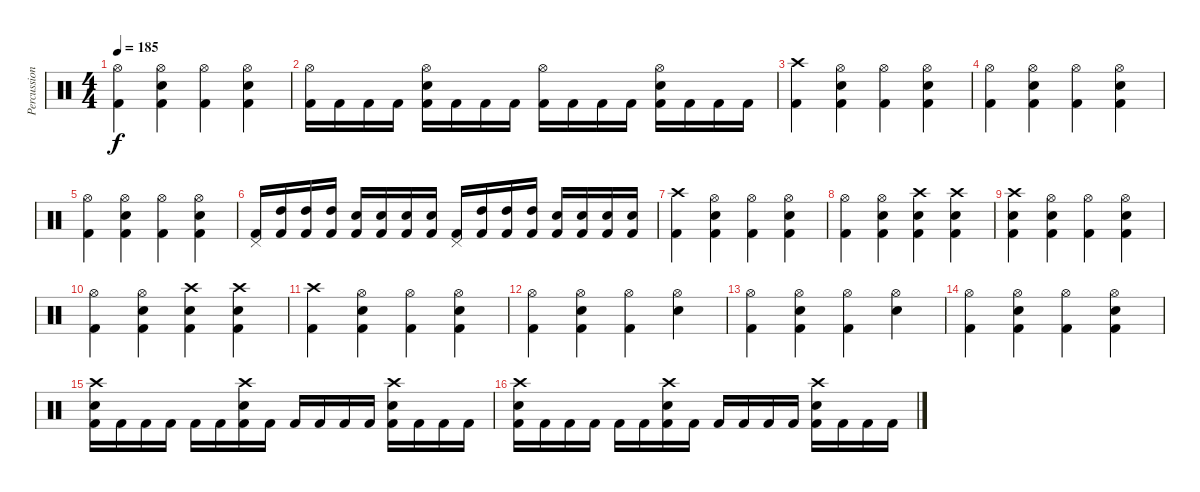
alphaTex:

\track ("Percussion" "Percussion") {instrument percussion}
\staff {score}
\articulation defaults
\ts (4 4)
\tempo 185
\clef neutral
\ks c
("Hi-Hat (open)" "Kick (hit) 2").4{dy f} ("Hi-Hat (open)" "Snare (hit) 2" "Kick (hit) 2").4 ("Hi-Hat (open)" "Kick (hit) 2").4 ("Hi-Hat (open)" "Snare (hit) 2" "Kick (hit) 2").4 |
("Hi-Hat (open)" "Kick (hit) 2").16 "Kick (hit) 2".16 "Kick (hit) 2".16 "Kick (hit) 2".16 ("Hi-Hat (open)" "Snare (hit) 2" "Kick (hit) 2").16 "Kick (hit) 2".16 "Kick (hit) 2".16 "Kick (hit) 2".16 ("Hi-Hat (open)" "Kick (hit) 2").16 "Kick (hit) 2".16 "Kick (hit) 2".16 "Kick (hit) 2".16 ("Hi-Hat (open)" "Snare (hit) 2" "Kick (hit) 2").16 "Kick (hit) 2".16 "Kick (hit) 2".16 "Kick (hit) 2".16 |
("Crash high (hit)" "Kick (hit) 2").4 ("Hi-Hat (open)" "Snare (hit) 2" "Kick (hit) 2").4 ("Hi-Hat (open)" "Kick (hit) 2").4 ("Hi-Hat (open)" "Snare (hit) 2" "Kick (hit) 2").4 |
("Hi-Hat (open)" "Kick (hit) 2").4 ("Hi-Hat (open)" "Snare (hit) 2" "Kick (hit) 2").4 ("Hi-Hat (open)" "Kick (hit) 2").4 ("Hi-Hat (open)" "Snare (hit) 2" "Kick (hit) 2").4 |
("Hi-Hat (open)" "Kick (hit) 2").4 ("Hi-Hat (open)" "Snare (hit) 2" "Kick (hit) 2").4 ("Hi-Hat (open)" "Kick (hit) 2").4 ("Hi-Hat (open)" "Snare (hit) 2" "Kick (hit) 2").4 |
("Pedal Hi-Hat (hit)" "Kick (hit) 2").16 ("High Tom (hit)" "Kick (hit) 2").16 ("High Tom (hit)" "Kick (hit) 2").16 ("High Tom (hit)" "Kick (hit) 2").16 ("Snare (hit) 2" "Kick (hit) 2").16 ("Snare (hit) 2" "Kick (hit) 2").16 ("Snare (hit) 2" "Kick (hit) 2").16 ("Snare (hit) 2" "Kick (hit) 2").16 ("Pedal Hi-Hat (hit)" "Kick (hit) 2").16 ("High Tom (hit)" "Kick (hit) 2").16 ("High Tom (hit)" "Kick (hit) 2").16 ("High Tom (hit)" "Kick (hit) 2").16 ("Snare (hit) 2" "Kick (hit) 2").16 ("Snare (hit) 2" "Kick (hit) 2").16 ("Snare (hit) 2" "Kick (hit) 2").16 ("Snare (hit) 2" "Kick (hit) 2").16 |
("Crash high (hit)" "Kick (hit) 2").4 ("Hi-Hat (open)" "Snare (hit) 2" "Kick (hit) 2").4 ("Hi-Hat (open)" "Kick (hit) 2").4 ("Hi-Hat (open)" "Snare (hit) 2" "Kick (hit) 2").4 |
("Hi-Hat (open)" "Kick (hit) 2").4 ("Hi-Hat (open)" "Snare (hit) 2" "Kick (hit) 2").4 ("Crash high (hit)" "Snare (hit) 2" "Kick (hit) 2").4 ("Crash high (hit)" "Snare (hit) 2" "Kick (hit) 2").4 |
("Crash high (hit)" "Snare (hit) 2" "Kick (hit) 2").4 ("Hi-Hat (open)" "Snare (hit) 2" "Kick (hit) 2").4 ("Hi-Hat (open)" "Kick (hit) 2").4 ("Hi-Hat (open)" "Snare (hit) 2" "Kick (hit) 2").4 |
("Hi-Hat (open)" "Kick (hit) 2").4 ("Hi-Hat (open)" "Snare (hit) 2" "Kick (hit) 2").4 ("Crash high (hit)" "Snare (hit) 2" "Kick (hit) 2").4 ("Crash high (hit)" "Snare (hit) 2" "Kick (hit) 2").4 |
("Crash high (hit)" "Kick (hit) 2").4 ("Hi-Hat (open)" "Snare (hit) 2" "Kick (hit) 2").4 ("Hi-Hat (open)" "Kick (hit) 2").4 ("Hi-Hat (open)" "Snare (hit) 2" "Kick (hit) 2").4 |
("Hi-Hat (open)" "Kick (hit) 2").4 ("Hi-Hat (open)" "Snare (hit) 2" "Kick (hit) 2").4 ("Hi-Hat (open)" "Kick (hit) 2").4 ("Hi-Hat (open)" "Snare (hit) 2").4 |
("Hi-Hat (open)" "Kick (hit) 2").4 ("Hi-Hat (open)" "Snare (hit) 2" "Kick (hit) 2").4 ("Hi-Hat (open)" "Kick (hit) 2").4 ("Hi-Hat (open)" "Snare (hit) 2").4 |
("Hi-Hat (open)" "Kick (hit) 2").4 ("Hi-Hat (open)" "Snare (hit) 2" "Kick (hit) 2").4 ("Hi-Hat (open)" "Kick (hit) 2").4 ("Hi-Hat (open)" "Snare (hit) 2" "Kick (hit) 2").4 |
("Crash high (hit)" "Snare (hit) 2" "Kick (hit) 2").16 "Kick (hit) 2".16 "Kick (hit) 2".16 "Kick (hit) 2".16 "Kick (hit) 2".16 "Kick (hit) 2".16 ("Crash high (hit)" "Snare (hit) 2" "Kick (hit) 2").16 "Kick (hit) 2".16 "Kick (hit) 2".16 "Kick (hit) 2".16 "Kick (hit) 2".16 "Kick (hit) 2".16 ("Crash high (hit)" "Snare (hit) 2" "Kick (hit) 2").16 "Kick (hit) 2".16 "Kick (hit) 2".16 "Kick (hit) 2".16 |
("Crash high (hit)" "Snare (hit) 2" "Kick (hit) 2").16 "Kick (hit) 2".16 "Kick (hit) 2".16 "Kick (hit) 2".16 "Kick (hit) 2".16 "Kick (hit) 2".16 ("Crash high (hit)" "Snare (hit) 2" "Kick (hit) 2").16 "Kick (hit) 2".16 "Kick (hit) 2".16 "Kick (hit) 2".16 "Kick (hit) 2".16 "Kick (hit) 2".16 ("Crash high (hit)" "Snare (hit) 2" "Kick (hit) 2").16 "Kick (hit) 2".16 "Kick (hit) 2".16 "Kick (hit) 2".16
